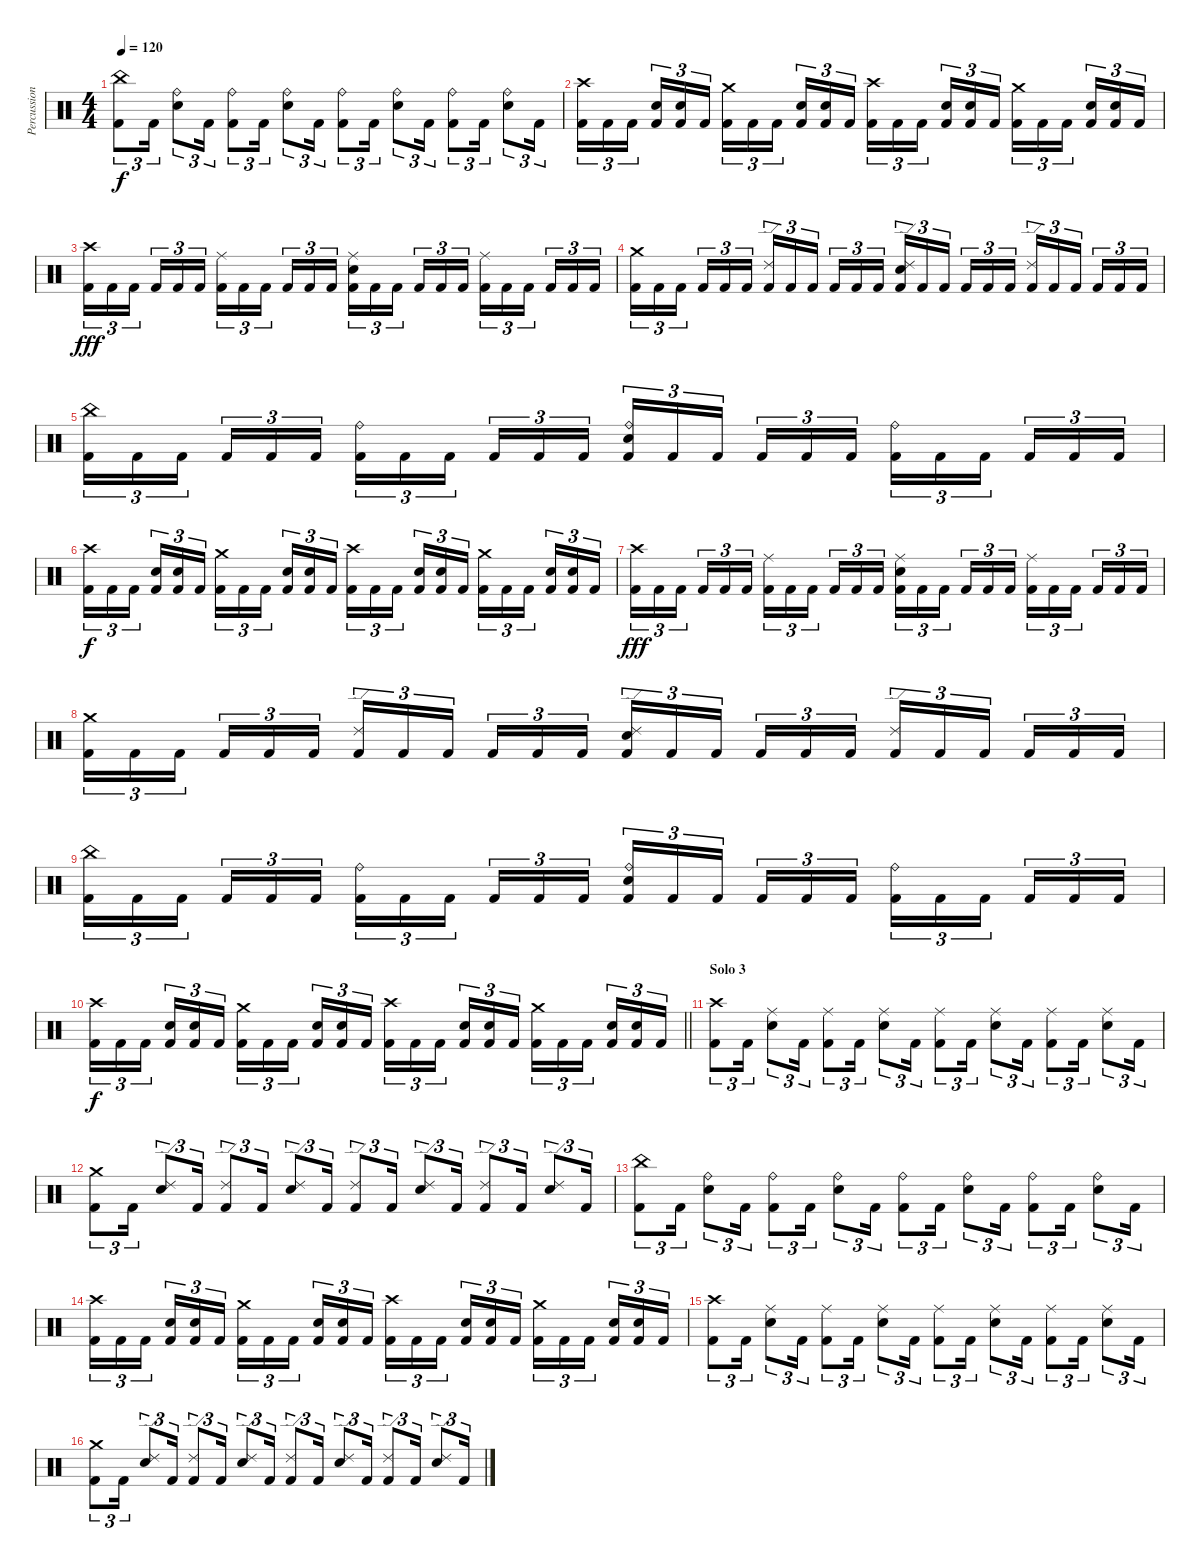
\track ("Percussion" "Percussion") {instrument percussion}
\staff {score}
\articulation defaults
\ts (4 4)
\tempo 120
\clef neutral
\ks c
("China (hit)" "Kick (hit) 2").8{tu (3 2) dy f} "Kick (hit) 2".16{tu (3 2)} ("Ride (bell)" "Electric Snare (hit)").8{tu (3 2)} "Kick (hit) 2".16{tu (3 2)} ("Ride (bell)" "Kick (hit) 2").8{tu (3 2)} "Kick (hit) 2".16{tu (3 2)} ("Ride (bell)" "Electric Snare (hit)").8{tu (3 2)} "Kick (hit) 2".16{tu (3 2)} ("Ride (bell)" "Kick (hit) 2").8{tu (3 2)} "Kick (hit) 2".16{tu (3 2)} ("Ride (bell)" "Electric Snare (hit)").8{tu (3 2)} "Kick (hit) 2".16{tu (3 2)} ("Ride (bell)" "Kick (hit) 2").8{tu (3 2)} "Kick (hit) 2".16{tu (3 2)} ("Ride (bell)" "Electric Snare (hit)").8{tu (3 2)} "Kick (hit) 2".16{tu (3 2)} |
("Crash high (hit)" "Kick (hit) 2").16{tu (3 2)} "Kick (hit) 2".16{tu (3 2)} "Kick (hit) 2".16{tu (3 2) beam splitsecondary} ("Electric Snare (hit)" "Kick (hit) 2").16{tu (3 2)} ("Electric Snare (hit)" "Kick (hit) 2").16{tu (3 2)} "Kick (hit) 2".16{tu (3 2)} ("Crash medium (hit)" "Kick (hit) 2").16{tu (3 2)} "Kick (hit) 2".16{tu (3 2)} "Kick (hit) 2".16{tu (3 2) beam splitsecondary} ("Electric Snare (hit)" "Kick (hit) 2").16{tu (3 2)} ("Electric Snare (hit)" "Kick (hit) 2").16{tu (3 2)} "Kick (hit) 2".16{tu (3 2)} ("Crash high (hit)" "Kick (hit) 2").16{tu (3 2)} "Kick (hit) 2".16{tu (3 2)} "Kick (hit) 2".16{tu (3 2) beam splitsecondary} ("Electric Snare (hit)" "Kick (hit) 2").16{tu (3 2)} ("Electric Snare (hit)" "Kick (hit) 2").16{tu (3 2)} "Kick (hit) 2".16{tu (3 2)} ("Crash medium (hit)" "Kick (hit) 2").16{tu (3 2)} "Kick (hit) 2".16{tu (3 2)} "Kick (hit) 2".16{tu (3 2) beam splitsecondary} ("Electric Snare (hit)" "Kick (hit) 2").16{tu (3 2)} ("Electric Snare (hit)" "Kick (hit) 2").16{tu (3 2)} "Kick (hit) 2".16{tu (3 2)} |
("Crash high (hit)" "Kick (hit) 2").16{tu (3 2) dy fff} "Kick (hit) 2".16{tu (3 2)} "Kick (hit) 2".16{tu (3 2) beam splitsecondary} "Kick (hit) 2".16{tu (3 2)} "Kick (hit) 2".16{tu (3 2)} "Kick (hit) 2".16{tu (3 2)} ("Ride (middle)" "Kick (hit) 2").16{tu (3 2)} "Kick (hit) 2".16{tu (3 2)} "Kick (hit) 2".16{tu (3 2) beam splitsecondary} "Kick (hit) 2".16{tu (3 2)} "Kick (hit) 2".16{tu (3 2)} "Kick (hit) 2".16{tu (3 2)} ("Ride (middle)" "Electric Snare (hit)" "Kick (hit) 2").16{tu (3 2)} "Kick (hit) 2".16{tu (3 2)} "Kick (hit) 2".16{tu (3 2) beam splitsecondary} "Kick (hit) 2".16{tu (3 2)} "Kick (hit) 2".16{tu (3 2)} "Kick (hit) 2".16{tu (3 2)} ("Ride (middle)" "Kick (hit) 2").16{tu (3 2)} "Kick (hit) 2".16{tu (3 2)} "Kick (hit) 2".16{tu (3 2) beam splitsecondary} "Kick (hit) 2".16{tu (3 2)} "Kick (hit) 2".16{tu (3 2)} "Kick (hit) 2".16{tu (3 2)} |
("Crash medium (hit)" "Kick (hit) 2").16{tu (3 2)} "Kick (hit) 2".16{tu (3 2)} "Kick (hit) 2".16{tu (3 2) beam splitsecondary} "Kick (hit) 2".16{tu (3 2)} "Kick (hit) 2".16{tu (3 2)} "Kick (hit) 2".16{tu (3 2)} ("Ride (edge) 2" "Kick (hit) 2").16{tu (3 2)} "Kick (hit) 2".16{tu (3 2)} "Kick (hit) 2".16{tu (3 2) beam splitsecondary} "Kick (hit) 2".16{tu (3 2)} "Kick (hit) 2".16{tu (3 2)} "Kick (hit) 2".16{tu (3 2)} ("Ride (edge) 2" "Electric Snare (hit)" "Kick (hit) 2").16{tu (3 2)} "Kick (hit) 2".16{tu (3 2)} "Kick (hit) 2".16{tu (3 2) beam splitsecondary} "Kick (hit) 2".16{tu (3 2)} "Kick (hit) 2".16{tu (3 2)} "Kick (hit) 2".16{tu (3 2)} ("Ride (edge) 2" "Kick (hit) 2").16{tu (3 2)} "Kick (hit) 2".16{tu (3 2)} "Kick (hit) 2".16{tu (3 2) beam splitsecondary} "Kick (hit) 2".16{tu (3 2)} "Kick (hit) 2".16{tu (3 2)} "Kick (hit) 2".16{tu (3 2)} |
("China (hit)" "Kick (hit) 2").16{tu (3 2)} "Kick (hit) 2".16{tu (3 2)} "Kick (hit) 2".16{tu (3 2) beam splitsecondary} "Kick (hit) 2".16{tu (3 2)} "Kick (hit) 2".16{tu (3 2)} "Kick (hit) 2".16{tu (3 2)} ("Ride (bell)" "Kick (hit) 2").16{tu (3 2)} "Kick (hit) 2".16{tu (3 2)} "Kick (hit) 2".16{tu (3 2) beam splitsecondary} "Kick (hit) 2".16{tu (3 2)} "Kick (hit) 2".16{tu (3 2)} "Kick (hit) 2".16{tu (3 2)} ("Ride (bell)" "Electric Snare (hit)" "Kick (hit) 2").16{tu (3 2)} "Kick (hit) 2".16{tu (3 2)} "Kick (hit) 2".16{tu (3 2) beam splitsecondary} "Kick (hit) 2".16{tu (3 2)} "Kick (hit) 2".16{tu (3 2)} "Kick (hit) 2".16{tu (3 2)} ("Ride (bell)" "Kick (hit) 2").16{tu (3 2)} "Kick (hit) 2".16{tu (3 2)} "Kick (hit) 2".16{tu (3 2) beam splitsecondary} "Kick (hit) 2".16{tu (3 2)} "Kick (hit) 2".16{tu (3 2)} "Kick (hit) 2".16{tu (3 2)} |
("Crash high (hit)" "Kick (hit) 2").16{tu (3 2) dy f} "Kick (hit) 2".16{tu (3 2)} "Kick (hit) 2".16{tu (3 2) beam splitsecondary} ("Electric Snare (hit)" "Kick (hit) 2").16{tu (3 2)} ("Electric Snare (hit)" "Kick (hit) 2").16{tu (3 2)} "Kick (hit) 2".16{tu (3 2)} ("Crash medium (hit)" "Kick (hit) 2").16{tu (3 2)} "Kick (hit) 2".16{tu (3 2)} "Kick (hit) 2".16{tu (3 2) beam splitsecondary} ("Electric Snare (hit)" "Kick (hit) 2").16{tu (3 2)} ("Electric Snare (hit)" "Kick (hit) 2").16{tu (3 2)} "Kick (hit) 2".16{tu (3 2)} ("Crash high (hit)" "Kick (hit) 2").16{tu (3 2)} "Kick (hit) 2".16{tu (3 2)} "Kick (hit) 2".16{tu (3 2) beam splitsecondary} ("Electric Snare (hit)" "Kick (hit) 2").16{tu (3 2)} ("Electric Snare (hit)" "Kick (hit) 2").16{tu (3 2)} "Kick (hit) 2".16{tu (3 2)} ("Crash medium (hit)" "Kick (hit) 2").16{tu (3 2)} "Kick (hit) 2".16{tu (3 2)} "Kick (hit) 2".16{tu (3 2) beam splitsecondary} ("Electric Snare (hit)" "Kick (hit) 2").16{tu (3 2)} ("Electric Snare (hit)" "Kick (hit) 2").16{tu (3 2)} "Kick (hit) 2".16{tu (3 2)} |
("Crash high (hit)" "Kick (hit) 2").16{tu (3 2) dy fff} "Kick (hit) 2".16{tu (3 2)} "Kick (hit) 2".16{tu (3 2) beam splitsecondary} "Kick (hit) 2".16{tu (3 2)} "Kick (hit) 2".16{tu (3 2)} "Kick (hit) 2".16{tu (3 2)} ("Ride (middle)" "Kick (hit) 2").16{tu (3 2)} "Kick (hit) 2".16{tu (3 2)} "Kick (hit) 2".16{tu (3 2) beam splitsecondary} "Kick (hit) 2".16{tu (3 2)} "Kick (hit) 2".16{tu (3 2)} "Kick (hit) 2".16{tu (3 2)} ("Ride (middle)" "Electric Snare (hit)" "Kick (hit) 2").16{tu (3 2)} "Kick (hit) 2".16{tu (3 2)} "Kick (hit) 2".16{tu (3 2) beam splitsecondary} "Kick (hit) 2".16{tu (3 2)} "Kick (hit) 2".16{tu (3 2)} "Kick (hit) 2".16{tu (3 2)} ("Ride (middle)" "Kick (hit) 2").16{tu (3 2)} "Kick (hit) 2".16{tu (3 2)} "Kick (hit) 2".16{tu (3 2) beam splitsecondary} "Kick (hit) 2".16{tu (3 2)} "Kick (hit) 2".16{tu (3 2)} "Kick (hit) 2".16{tu (3 2)} |
("Crash medium (hit)" "Kick (hit) 2").16{tu (3 2)} "Kick (hit) 2".16{tu (3 2)} "Kick (hit) 2".16{tu (3 2) beam splitsecondary} "Kick (hit) 2".16{tu (3 2)} "Kick (hit) 2".16{tu (3 2)} "Kick (hit) 2".16{tu (3 2)} ("Ride (edge) 2" "Kick (hit) 2").16{tu (3 2)} "Kick (hit) 2".16{tu (3 2)} "Kick (hit) 2".16{tu (3 2) beam splitsecondary} "Kick (hit) 2".16{tu (3 2)} "Kick (hit) 2".16{tu (3 2)} "Kick (hit) 2".16{tu (3 2)} ("Ride (edge) 2" "Electric Snare (hit)" "Kick (hit) 2").16{tu (3 2)} "Kick (hit) 2".16{tu (3 2)} "Kick (hit) 2".16{tu (3 2) beam splitsecondary} "Kick (hit) 2".16{tu (3 2)} "Kick (hit) 2".16{tu (3 2)} "Kick (hit) 2".16{tu (3 2)} ("Ride (edge) 2" "Kick (hit) 2").16{tu (3 2)} "Kick (hit) 2".16{tu (3 2)} "Kick (hit) 2".16{tu (3 2) beam splitsecondary} "Kick (hit) 2".16{tu (3 2)} "Kick (hit) 2".16{tu (3 2)} "Kick (hit) 2".16{tu (3 2)} |
("China (hit)" "Kick (hit) 2").16{tu (3 2)} "Kick (hit) 2".16{tu (3 2)} "Kick (hit) 2".16{tu (3 2) beam splitsecondary} "Kick (hit) 2".16{tu (3 2)} "Kick (hit) 2".16{tu (3 2)} "Kick (hit) 2".16{tu (3 2)} ("Ride (bell)" "Kick (hit) 2").16{tu (3 2)} "Kick (hit) 2".16{tu (3 2)} "Kick (hit) 2".16{tu (3 2) beam splitsecondary} "Kick (hit) 2".16{tu (3 2)} "Kick (hit) 2".16{tu (3 2)} "Kick (hit) 2".16{tu (3 2)} ("Ride (bell)" "Electric Snare (hit)" "Kick (hit) 2").16{tu (3 2)} "Kick (hit) 2".16{tu (3 2)} "Kick (hit) 2".16{tu (3 2) beam splitsecondary} "Kick (hit) 2".16{tu (3 2)} "Kick (hit) 2".16{tu (3 2)} "Kick (hit) 2".16{tu (3 2)} ("Ride (bell)" "Kick (hit) 2").16{tu (3 2)} "Kick (hit) 2".16{tu (3 2)} "Kick (hit) 2".16{tu (3 2) beam splitsecondary} "Kick (hit) 2".16{tu (3 2)} "Kick (hit) 2".16{tu (3 2)} "Kick (hit) 2".16{tu (3 2)} |
\barLineRight lightlight
("Crash high (hit)" "Kick (hit) 2").16{tu (3 2) dy f} "Kick (hit) 2".16{tu (3 2)} "Kick (hit) 2".16{tu (3 2) beam splitsecondary} ("Electric Snare (hit)" "Kick (hit) 2").16{tu (3 2)} ("Electric Snare (hit)" "Kick (hit) 2").16{tu (3 2)} "Kick (hit) 2".16{tu (3 2)} ("Crash medium (hit)" "Kick (hit) 2").16{tu (3 2)} "Kick (hit) 2".16{tu (3 2)} "Kick (hit) 2".16{tu (3 2) beam splitsecondary} ("Electric Snare (hit)" "Kick (hit) 2").16{tu (3 2)} ("Electric Snare (hit)" "Kick (hit) 2").16{tu (3 2)} "Kick (hit) 2".16{tu (3 2)} ("Crash high (hit)" "Kick (hit) 2").16{tu (3 2)} "Kick (hit) 2".16{tu (3 2)} "Kick (hit) 2".16{tu (3 2) beam splitsecondary} ("Electric Snare (hit)" "Kick (hit) 2").16{tu (3 2)} ("Electric Snare (hit)" "Kick (hit) 2").16{tu (3 2)} "Kick (hit) 2".16{tu (3 2)} ("Crash medium (hit)" "Kick (hit) 2").16{tu (3 2)} "Kick (hit) 2".16{tu (3 2)} "Kick (hit) 2".16{tu (3 2) beam splitsecondary} ("Electric Snare (hit)" "Kick (hit) 2").16{tu (3 2)} ("Electric Snare (hit)" "Kick (hit) 2").16{tu (3 2)} "Kick (hit) 2".16{tu (3 2)} |
\section ("" "Solo 3")
("Crash high (hit)" "Kick (hit) 2").8{tu (3 2)} "Kick (hit) 2".16{tu (3 2)} ("Ride (middle)" "Electric Snare (hit)").8{tu (3 2)} "Kick (hit) 2".16{tu (3 2)} ("Ride (middle)" "Kick (hit) 2").8{tu (3 2)} "Kick (hit) 2".16{tu (3 2)} ("Ride (middle)" "Electric Snare (hit)").8{tu (3 2)} "Kick (hit) 2".16{tu (3 2)} ("Ride (middle)" "Kick (hit) 2").8{tu (3 2)} "Kick (hit) 2".16{tu (3 2)} ("Ride (middle)" "Electric Snare (hit)").8{tu (3 2)} "Kick (hit) 2".16{tu (3 2)} ("Ride (middle)" "Kick (hit) 2").8{tu (3 2)} "Kick (hit) 2".16{tu (3 2)} ("Ride (middle)" "Electric Snare (hit)").8{tu (3 2)} "Kick (hit) 2".16{tu (3 2)} |
("Crash medium (hit)" "Kick (hit) 2").8{tu (3 2)} "Kick (hit) 2".16{tu (3 2)} ("Ride (edge) 2" "Electric Snare (hit)").8{tu (3 2)} "Kick (hit) 2".16{tu (3 2)} ("Ride (edge) 2" "Kick (hit) 2").8{tu (3 2)} "Kick (hit) 2".16{tu (3 2)} ("Ride (edge) 2" "Electric Snare (hit)").8{tu (3 2)} "Kick (hit) 2".16{tu (3 2)} ("Ride (edge) 2" "Kick (hit) 2").8{tu (3 2)} "Kick (hit) 2".16{tu (3 2)} ("Ride (edge) 2" "Electric Snare (hit)").8{tu (3 2)} "Kick (hit) 2".16{tu (3 2)} ("Ride (edge) 2" "Kick (hit) 2").8{tu (3 2)} "Kick (hit) 2".16{tu (3 2)} ("Ride (edge) 2" "Electric Snare (hit)").8{tu (3 2)} "Kick (hit) 2".16{tu (3 2)} |
("China (hit)" "Kick (hit) 2").8{tu (3 2)} "Kick (hit) 2".16{tu (3 2)} ("Ride (bell)" "Electric Snare (hit)").8{tu (3 2)} "Kick (hit) 2".16{tu (3 2)} ("Ride (bell)" "Kick (hit) 2").8{tu (3 2)} "Kick (hit) 2".16{tu (3 2)} ("Ride (bell)" "Electric Snare (hit)").8{tu (3 2)} "Kick (hit) 2".16{tu (3 2)} ("Ride (bell)" "Kick (hit) 2").8{tu (3 2)} "Kick (hit) 2".16{tu (3 2)} ("Ride (bell)" "Electric Snare (hit)").8{tu (3 2)} "Kick (hit) 2".16{tu (3 2)} ("Ride (bell)" "Kick (hit) 2").8{tu (3 2)} "Kick (hit) 2".16{tu (3 2)} ("Ride (bell)" "Electric Snare (hit)").8{tu (3 2)} "Kick (hit) 2".16{tu (3 2)} |
("Crash high (hit)" "Kick (hit) 2").16{tu (3 2)} "Kick (hit) 2".16{tu (3 2)} "Kick (hit) 2".16{tu (3 2) beam splitsecondary} ("Electric Snare (hit)" "Kick (hit) 2").16{tu (3 2)} ("Electric Snare (hit)" "Kick (hit) 2").16{tu (3 2)} "Kick (hit) 2".16{tu (3 2)} ("Crash medium (hit)" "Kick (hit) 2").16{tu (3 2)} "Kick (hit) 2".16{tu (3 2)} "Kick (hit) 2".16{tu (3 2) beam splitsecondary} ("Electric Snare (hit)" "Kick (hit) 2").16{tu (3 2)} ("Electric Snare (hit)" "Kick (hit) 2").16{tu (3 2)} "Kick (hit) 2".16{tu (3 2)} ("Crash high (hit)" "Kick (hit) 2").16{tu (3 2)} "Kick (hit) 2".16{tu (3 2)} "Kick (hit) 2".16{tu (3 2) beam splitsecondary} ("Electric Snare (hit)" "Kick (hit) 2").16{tu (3 2)} ("Electric Snare (hit)" "Kick (hit) 2").16{tu (3 2)} "Kick (hit) 2".16{tu (3 2)} ("Crash medium (hit)" "Kick (hit) 2").16{tu (3 2)} "Kick (hit) 2".16{tu (3 2)} "Kick (hit) 2".16{tu (3 2) beam splitsecondary} ("Electric Snare (hit)" "Kick (hit) 2").16{tu (3 2)} ("Electric Snare (hit)" "Kick (hit) 2").16{tu (3 2)} "Kick (hit) 2".16{tu (3 2)} |
("Crash high (hit)" "Kick (hit) 2").8{tu (3 2)} "Kick (hit) 2".16{tu (3 2)} ("Ride (middle)" "Electric Snare (hit)").8{tu (3 2)} "Kick (hit) 2".16{tu (3 2)} ("Ride (middle)" "Kick (hit) 2").8{tu (3 2)} "Kick (hit) 2".16{tu (3 2)} ("Ride (middle)" "Electric Snare (hit)").8{tu (3 2)} "Kick (hit) 2".16{tu (3 2)} ("Ride (middle)" "Kick (hit) 2").8{tu (3 2)} "Kick (hit) 2".16{tu (3 2)} ("Ride (middle)" "Electric Snare (hit)").8{tu (3 2)} "Kick (hit) 2".16{tu (3 2)} ("Ride (middle)" "Kick (hit) 2").8{tu (3 2)} "Kick (hit) 2".16{tu (3 2)} ("Ride (middle)" "Electric Snare (hit)").8{tu (3 2)} "Kick (hit) 2".16{tu (3 2)} |
("Crash medium (hit)" "Kick (hit) 2").8{tu (3 2)} "Kick (hit) 2".16{tu (3 2)} ("Ride (edge) 2" "Electric Snare (hit)").8{tu (3 2)} "Kick (hit) 2".16{tu (3 2)} ("Ride (edge) 2" "Kick (hit) 2").8{tu (3 2)} "Kick (hit) 2".16{tu (3 2)} ("Ride (edge) 2" "Electric Snare (hit)").8{tu (3 2)} "Kick (hit) 2".16{tu (3 2)} ("Ride (edge) 2" "Kick (hit) 2").8{tu (3 2)} "Kick (hit) 2".16{tu (3 2)} ("Ride (edge) 2" "Electric Snare (hit)").8{tu (3 2)} "Kick (hit) 2".16{tu (3 2)} ("Ride (edge) 2" "Kick (hit) 2").8{tu (3 2)} "Kick (hit) 2".16{tu (3 2)} ("Ride (edge) 2" "Electric Snare (hit)").8{tu (3 2)} "Kick (hit) 2".16{tu (3 2)}
